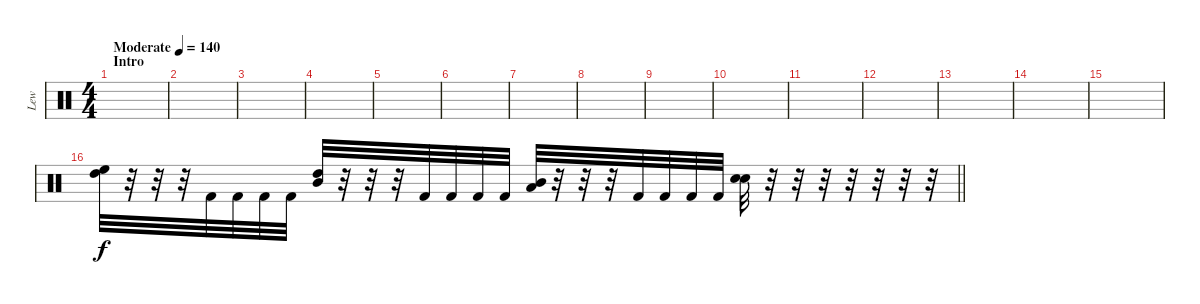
\track ("Lew" "Lew") {instrument percussion}
\staff {score}
\articulation defaults
\ts (4 4)
\section ("" "Intro")
\tempo (140 "Moderate")
\clef neutral
\ks c
|
|
|
|
|
|
|
|
|
|
|
|
|
|
|
\barLineRight lightlight
("High Tom (hit)" "High Floor Tom (hit)").32 r.32 r.32 r.32 "Kick (hit) 2".32 "Kick (hit) 2".32 "Kick (hit) 2".32 "Kick (hit) 2".32 ("Mid Tom (hit)" "High Tom (hit)").32 r.32 r.32 r.32 "Kick (hit) 2".32 "Kick (hit) 2".32 "Kick (hit) 2".32 "Kick (hit) 2".32 ("Mid Tom (hit)" "Low Tom (hit)").32 r.32 r.32 r.32 "Kick (hit) 2".32 "Kick (hit) 2".32 "Kick (hit) 2".32 "Kick (hit) 2".32 ("Electric Snare (hit)" "Electric Snare (hit)").32 r.32 r.32 r.32 r.32 r.32 r.32 r.32
